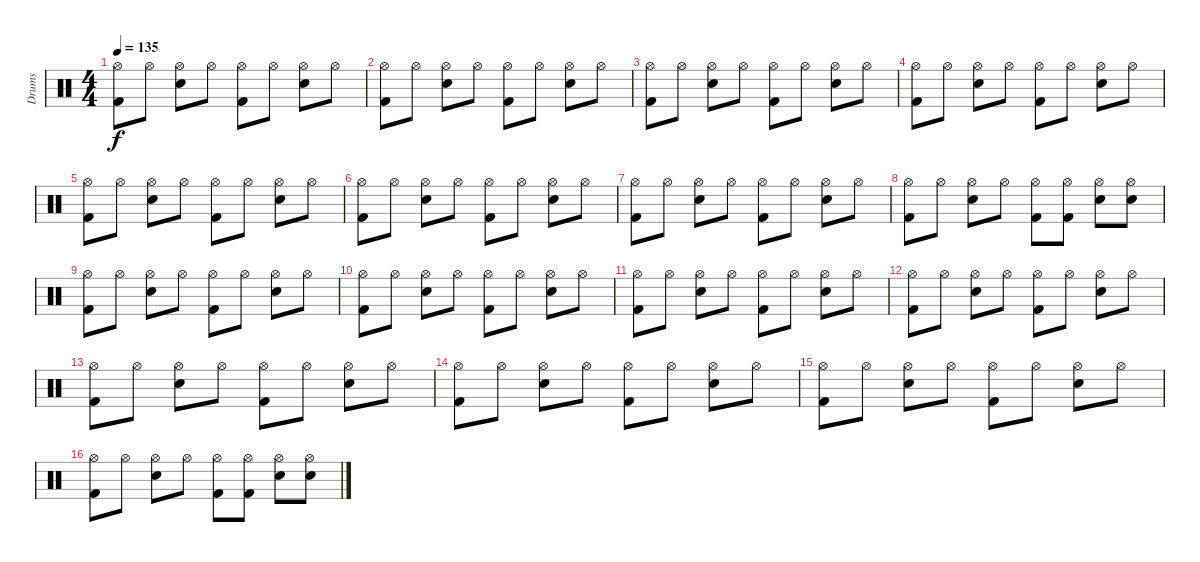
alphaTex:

\track ("Drums" "Drums") {instrument percussion}
\staff {score}
\articulation defaults
\ts (4 4)
\tempo 135
\clef neutral
\ks c
("Hi-Hat (open)" "Kick (hit) 2").8{dy f} "Hi-Hat (open)".8 ("Hi-Hat (open)" "Snare (hit) 2").8 "Hi-Hat (open)".8 ("Hi-Hat (open)" "Kick (hit) 2").8 "Hi-Hat (open)".8 ("Hi-Hat (open)" "Snare (hit) 2").8 "Hi-Hat (open)".8 |
("Hi-Hat (open)" "Kick (hit) 2").8 "Hi-Hat (open)".8 ("Hi-Hat (open)" "Snare (hit) 2").8 "Hi-Hat (open)".8 ("Hi-Hat (open)" "Kick (hit) 2").8 "Hi-Hat (open)".8 ("Hi-Hat (open)" "Snare (hit) 2").8 "Hi-Hat (open)".8 |
("Hi-Hat (open)" "Kick (hit) 2").8 "Hi-Hat (open)".8 ("Hi-Hat (open)" "Snare (hit) 2").8 "Hi-Hat (open)".8 ("Hi-Hat (open)" "Kick (hit) 2").8 "Hi-Hat (open)".8 ("Hi-Hat (open)" "Snare (hit) 2").8 "Hi-Hat (open)".8 |
("Hi-Hat (open)" "Kick (hit) 2").8 "Hi-Hat (open)".8 ("Hi-Hat (open)" "Snare (hit) 2").8 "Hi-Hat (open)".8 ("Hi-Hat (open)" "Kick (hit) 2").8 "Hi-Hat (open)".8 ("Hi-Hat (open)" "Snare (hit) 2").8 "Hi-Hat (open)".8 |
("Hi-Hat (open)" "Kick (hit) 2").8 "Hi-Hat (open)".8 ("Hi-Hat (open)" "Snare (hit) 2").8 "Hi-Hat (open)".8 ("Hi-Hat (open)" "Kick (hit) 2").8 "Hi-Hat (open)".8 ("Hi-Hat (open)" "Snare (hit) 2").8 "Hi-Hat (open)".8 |
("Hi-Hat (open)" "Kick (hit) 2").8 "Hi-Hat (open)".8 ("Hi-Hat (open)" "Snare (hit) 2").8 "Hi-Hat (open)".8 ("Hi-Hat (open)" "Kick (hit) 2").8 "Hi-Hat (open)".8 ("Hi-Hat (open)" "Snare (hit) 2").8 "Hi-Hat (open)".8 |
("Hi-Hat (open)" "Kick (hit) 2").8 "Hi-Hat (open)".8 ("Hi-Hat (open)" "Snare (hit) 2").8 "Hi-Hat (open)".8 ("Hi-Hat (open)" "Kick (hit) 2").8 "Hi-Hat (open)".8 ("Hi-Hat (open)" "Snare (hit) 2").8 "Hi-Hat (open)".8 |
("Hi-Hat (open)" "Kick (hit) 2").8 "Hi-Hat (open)".8 ("Hi-Hat (open)" "Snare (hit) 2").8 "Hi-Hat (open)".8 ("Hi-Hat (open)" "Kick (hit) 2").8 ("Hi-Hat (open)" "Kick (hit) 2").8 ("Hi-Hat (open)" "Snare (hit) 2").8 ("Hi-Hat (open)" "Snare (hit) 2").8 |
("Hi-Hat (open)" "Kick (hit) 2").8 "Hi-Hat (open)".8 ("Hi-Hat (open)" "Snare (hit) 2").8 "Hi-Hat (open)".8 ("Hi-Hat (open)" "Kick (hit) 2").8 "Hi-Hat (open)".8 ("Hi-Hat (open)" "Snare (hit) 2").8 "Hi-Hat (open)".8 |
("Hi-Hat (open)" "Kick (hit) 2").8 "Hi-Hat (open)".8 ("Hi-Hat (open)" "Snare (hit) 2").8 "Hi-Hat (open)".8 ("Hi-Hat (open)" "Kick (hit) 2").8 "Hi-Hat (open)".8 ("Hi-Hat (open)" "Snare (hit) 2").8 "Hi-Hat (open)".8 |
("Hi-Hat (open)" "Kick (hit) 2").8 "Hi-Hat (open)".8 ("Hi-Hat (open)" "Snare (hit) 2").8 "Hi-Hat (open)".8 ("Hi-Hat (open)" "Kick (hit) 2").8 "Hi-Hat (open)".8 ("Hi-Hat (open)" "Snare (hit) 2").8 "Hi-Hat (open)".8 |
("Hi-Hat (open)" "Kick (hit) 2").8 "Hi-Hat (open)".8 ("Hi-Hat (open)" "Snare (hit) 2").8 "Hi-Hat (open)".8 ("Hi-Hat (open)" "Kick (hit) 2").8 "Hi-Hat (open)".8 ("Hi-Hat (open)" "Snare (hit) 2").8 "Hi-Hat (open)".8 |
("Hi-Hat (open)" "Kick (hit) 2").8 "Hi-Hat (open)".8 ("Hi-Hat (open)" "Snare (hit) 2").8 "Hi-Hat (open)".8 ("Hi-Hat (open)" "Kick (hit) 2").8 "Hi-Hat (open)".8 ("Hi-Hat (open)" "Snare (hit) 2").8 "Hi-Hat (open)".8 |
("Hi-Hat (open)" "Kick (hit) 2").8 "Hi-Hat (open)".8 ("Hi-Hat (open)" "Snare (hit) 2").8 "Hi-Hat (open)".8 ("Hi-Hat (open)" "Kick (hit) 2").8 "Hi-Hat (open)".8 ("Hi-Hat (open)" "Snare (hit) 2").8 "Hi-Hat (open)".8 |
("Hi-Hat (open)" "Kick (hit) 2").8 "Hi-Hat (open)".8 ("Hi-Hat (open)" "Snare (hit) 2").8 "Hi-Hat (open)".8 ("Hi-Hat (open)" "Kick (hit) 2").8 "Hi-Hat (open)".8 ("Hi-Hat (open)" "Snare (hit) 2").8 "Hi-Hat (open)".8 |
("Hi-Hat (open)" "Kick (hit) 2").8 "Hi-Hat (open)".8 ("Hi-Hat (open)" "Snare (hit) 2").8 "Hi-Hat (open)".8 ("Hi-Hat (open)" "Kick (hit) 2").8 ("Hi-Hat (open)" "Kick (hit) 2").8 ("Hi-Hat (open)" "Snare (hit) 2").8 ("Hi-Hat (open)" "Snare (hit) 2").8
